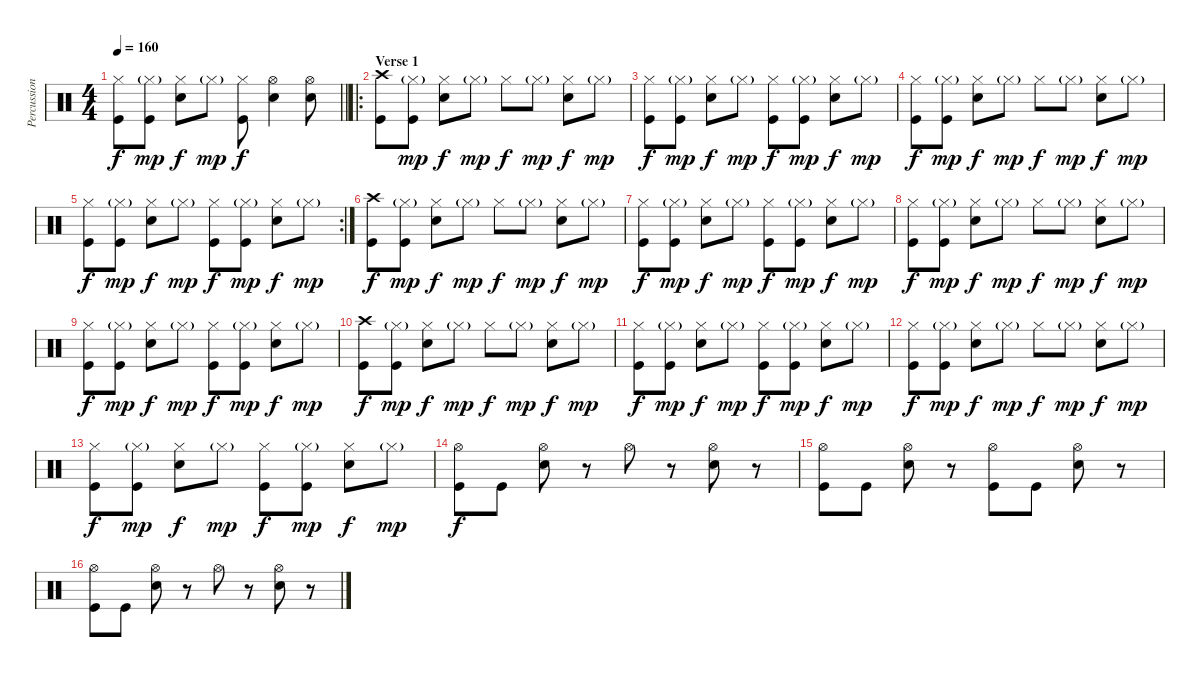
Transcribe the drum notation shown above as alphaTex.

\track ("Percussions" "Percussion") {instrument percussion}
\staff {score}
\articulation defaults
\ts (4 4)
\tempo 160
\clef neutral
\barLineRight lightlight
\ks c
("Kick (hit)" "Hi-Hat (closed)").8{dy f} ("Kick (hit)" "Hi-Hat (closed)"{g}).8{dy mp} ("Snare (hit) 2" "Hi-Hat (closed)").8{dy f} "Hi-Hat (closed)"{g}.8{dy mp} ("Kick (hit)" "Hi-Hat (closed)").8{dy f} ("Snare (hit) 2" "Hi-Hat (open)").4 ("Snare (hit) 2" "Hi-Hat (open)").8 |
\ro
\section ("" "Verse 1")
("Kick (hit)" "Crash high (hit)").8 ("Kick (hit)" "Hi-Hat (closed)"{g}).8{dy mp} ("Snare (hit) 2" "Hi-Hat (closed)").8{dy f} "Hi-Hat (closed)"{g}.8{dy mp} "Hi-Hat (closed)".8{dy f} "Hi-Hat (closed)"{g}.8{dy mp} ("Snare (hit) 2" "Hi-Hat (closed)").8{dy f} "Hi-Hat (closed)"{g}.8{dy mp} |
("Kick (hit)" "Hi-Hat (closed)").8{dy f} ("Kick (hit)" "Hi-Hat (closed)"{g}).8{dy mp} ("Snare (hit) 2" "Hi-Hat (closed)").8{dy f} "Hi-Hat (closed)"{g}.8{dy mp} ("Kick (hit)" "Hi-Hat (closed)").8{dy f} ("Kick (hit)" "Hi-Hat (closed)"{g}).8{dy mp} ("Snare (hit) 2" "Hi-Hat (closed)").8{dy f} "Hi-Hat (closed)"{g}.8{dy mp} |
("Kick (hit)" "Hi-Hat (closed)").8{dy f} ("Kick (hit)" "Hi-Hat (closed)"{g}).8{dy mp} ("Snare (hit) 2" "Hi-Hat (closed)").8{dy f} "Hi-Hat (closed)"{g}.8{dy mp} "Hi-Hat (closed)".8{dy f} "Hi-Hat (closed)"{g}.8{dy mp} ("Snare (hit) 2" "Hi-Hat (closed)").8{dy f} "Hi-Hat (closed)"{g}.8{dy mp} |
\rc 2
("Kick (hit)" "Hi-Hat (closed)").8{dy f} ("Kick (hit)" "Hi-Hat (closed)"{g}).8{dy mp} ("Snare (hit) 2" "Hi-Hat (closed)").8{dy f} "Hi-Hat (closed)"{g}.8{dy mp} ("Kick (hit)" "Hi-Hat (closed)").8{dy f} ("Kick (hit)" "Hi-Hat (closed)"{g}).8{dy mp} ("Snare (hit) 2" "Hi-Hat (closed)").8{dy f} "Hi-Hat (closed)"{g}.8{dy mp} |
("Kick (hit)" "Crash high (hit)").8{dy f} ("Kick (hit)" "Hi-Hat (closed)"{g}).8{dy mp} ("Snare (hit) 2" "Hi-Hat (closed)").8{dy f} "Hi-Hat (closed)"{g}.8{dy mp} "Hi-Hat (closed)".8{dy f} "Hi-Hat (closed)"{g}.8{dy mp} ("Snare (hit) 2" "Hi-Hat (closed)").8{dy f} "Hi-Hat (closed)"{g}.8{dy mp} |
("Kick (hit)" "Hi-Hat (closed)").8{dy f} ("Kick (hit)" "Hi-Hat (closed)"{g}).8{dy mp} ("Snare (hit) 2" "Hi-Hat (closed)").8{dy f} "Hi-Hat (closed)"{g}.8{dy mp} ("Kick (hit)" "Hi-Hat (closed)").8{dy f} ("Kick (hit)" "Hi-Hat (closed)"{g}).8{dy mp} ("Snare (hit) 2" "Hi-Hat (closed)").8{dy f} "Hi-Hat (closed)"{g}.8{dy mp} |
("Kick (hit)" "Hi-Hat (closed)").8{dy f} ("Kick (hit)" "Hi-Hat (closed)"{g}).8{dy mp} ("Snare (hit) 2" "Hi-Hat (closed)").8{dy f} "Hi-Hat (closed)"{g}.8{dy mp} "Hi-Hat (closed)".8{dy f} "Hi-Hat (closed)"{g}.8{dy mp} ("Snare (hit) 2" "Hi-Hat (closed)").8{dy f} "Hi-Hat (closed)"{g}.8{dy mp} |
("Kick (hit)" "Hi-Hat (closed)").8{dy f} ("Kick (hit)" "Hi-Hat (closed)"{g}).8{dy mp} ("Snare (hit) 2" "Hi-Hat (closed)").8{dy f} "Hi-Hat (closed)"{g}.8{dy mp} ("Kick (hit)" "Hi-Hat (closed)").8{dy f} ("Kick (hit)" "Hi-Hat (closed)"{g}).8{dy mp} ("Snare (hit) 2" "Hi-Hat (closed)").8{dy f} "Hi-Hat (closed)"{g}.8{dy mp} |
("Kick (hit)" "Crash high (hit)").8{dy f} ("Kick (hit)" "Hi-Hat (closed)"{g}).8{dy mp} ("Snare (hit) 2" "Hi-Hat (closed)").8{dy f} "Hi-Hat (closed)"{g}.8{dy mp} "Hi-Hat (closed)".8{dy f} "Hi-Hat (closed)"{g}.8{dy mp} ("Snare (hit) 2" "Hi-Hat (closed)").8{dy f} "Hi-Hat (closed)"{g}.8{dy mp} |
("Kick (hit)" "Hi-Hat (closed)").8{dy f} ("Kick (hit)" "Hi-Hat (closed)"{g}).8{dy mp} ("Snare (hit) 2" "Hi-Hat (closed)").8{dy f} "Hi-Hat (closed)"{g}.8{dy mp} ("Kick (hit)" "Hi-Hat (closed)").8{dy f} ("Kick (hit)" "Hi-Hat (closed)"{g}).8{dy mp} ("Snare (hit) 2" "Hi-Hat (closed)").8{dy f} "Hi-Hat (closed)"{g}.8{dy mp} |
("Kick (hit)" "Hi-Hat (closed)").8{dy f} ("Kick (hit)" "Hi-Hat (closed)"{g}).8{dy mp} ("Snare (hit) 2" "Hi-Hat (closed)").8{dy f} "Hi-Hat (closed)"{g}.8{dy mp} "Hi-Hat (closed)".8{dy f} "Hi-Hat (closed)"{g}.8{dy mp} ("Snare (hit) 2" "Hi-Hat (closed)").8{dy f} "Hi-Hat (closed)"{g}.8{dy mp} |
("Kick (hit)" "Hi-Hat (closed)").8{dy f} ("Kick (hit)" "Hi-Hat (closed)"{g}).8{dy mp} ("Snare (hit) 2" "Hi-Hat (closed)").8{dy f} "Hi-Hat (closed)"{g}.8{dy mp} ("Kick (hit)" "Hi-Hat (closed)").8{dy f} ("Kick (hit)" "Hi-Hat (closed)"{g}).8{dy mp} ("Snare (hit) 2" "Hi-Hat (closed)").8{dy f} "Hi-Hat (closed)"{g}.8{dy mp} |
("Kick (hit)" "Hi-Hat (open)").8{dy f} "Kick (hit)".8 ("Snare (hit) 2" "Hi-Hat (open)").8 r.8 "Hi-Hat (open)".8 r.8 ("Snare (hit) 2" "Hi-Hat (open)").8 r.8 |
("Kick (hit)" "Hi-Hat (open)").8 "Kick (hit)".8 ("Snare (hit) 2" "Hi-Hat (open)").8 r.8 ("Kick (hit)" "Hi-Hat (open)").8 "Kick (hit)".8 ("Snare (hit) 2" "Hi-Hat (open)").8 r.8 |
("Kick (hit)" "Hi-Hat (open)").8 "Kick (hit)".8 ("Snare (hit) 2" "Hi-Hat (open)").8 r.8 "Hi-Hat (open)".8 r.8 ("Snare (hit) 2" "Hi-Hat (open)").8 r.8
